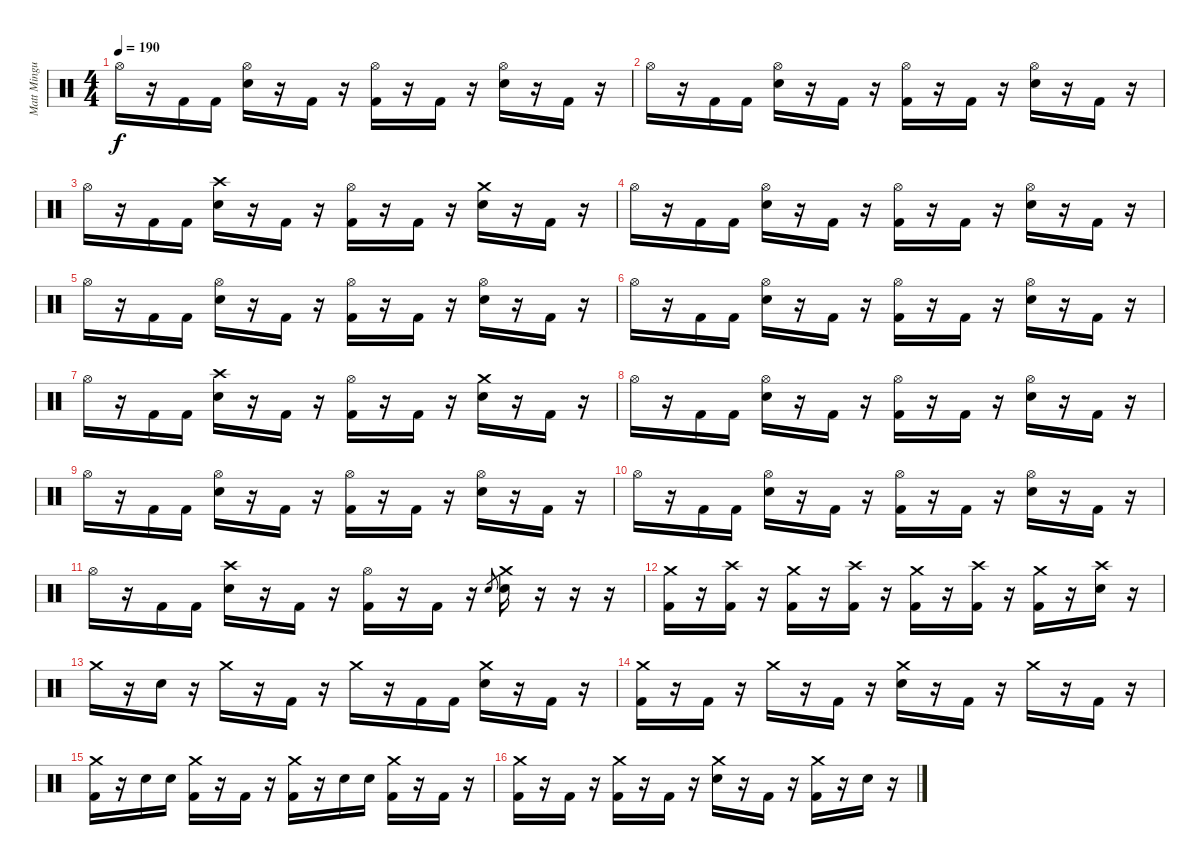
\track ("Matt Mingus" "Matt Mingu") {instrument percussion}
\staff {score}
\articulation defaults
\ts (4 4)
\tempo 190
\clef neutral
\ks c "Hi-Hat (open)".16{dy f}
r.16 "Kick (hit) 2".16 "Kick (hit) 2".16 ("Hi-Hat (open)" "Electric Snare (hit)").16 r.16 "Kick (hit) 2".16 r.16 ("Hi-Hat (open)" "Kick (hit) 2").16 r.16 "Kick (hit) 2".16 r.16 ("Hi-Hat (open)" "Electric Snare (hit)").16 r.16 "Kick (hit) 2".16 r.16 |
"Hi-Hat (open)".16 r.16 "Kick (hit) 2".16 "Kick (hit) 2".16 ("Hi-Hat (open)" "Electric Snare (hit)").16 r.16 "Kick (hit) 2".16 r.16 ("Hi-Hat (open)" "Kick (hit) 2").16 r.16 "Kick (hit) 2".16 r.16 ("Hi-Hat (open)" "Electric Snare (hit)").16 r.16 "Kick (hit) 2".16 r.16 |
"Hi-Hat (open)".16 r.16 "Kick (hit) 2".16 "Kick (hit) 2".16 ("Crash high (hit)" "Electric Snare (hit)").16 r.16 "Kick (hit) 2".16 r.16 ("Hi-Hat (open)" "Kick (hit) 2").16 r.16 "Kick (hit) 2".16 r.16 ("Crash medium (hit)" "Electric Snare (hit)").16 r.16 "Kick (hit) 2".16 r.16 |
"Hi-Hat (open)".16 r.16 "Kick (hit) 2".16 "Kick (hit) 2".16 ("Hi-Hat (open)" "Electric Snare (hit)").16 r.16 "Kick (hit) 2".16 r.16 ("Hi-Hat (open)" "Kick (hit) 2").16 r.16 "Kick (hit) 2".16 r.16 ("Hi-Hat (open)" "Electric Snare (hit)").16 r.16 "Kick (hit) 2".16 r.16 |
"Hi-Hat (open)".16 r.16 "Kick (hit) 2".16 "Kick (hit) 2".16 ("Hi-Hat (open)" "Electric Snare (hit)").16 r.16 "Kick (hit) 2".16 r.16 ("Hi-Hat (open)" "Kick (hit) 2").16 r.16 "Kick (hit) 2".16 r.16 ("Hi-Hat (open)" "Electric Snare (hit)").16 r.16 "Kick (hit) 2".16 r.16 |
"Hi-Hat (open)".16 r.16 "Kick (hit) 2".16 "Kick (hit) 2".16 ("Hi-Hat (open)" "Electric Snare (hit)").16 r.16 "Kick (hit) 2".16 r.16 ("Hi-Hat (open)" "Kick (hit) 2").16 r.16 "Kick (hit) 2".16 r.16 ("Hi-Hat (open)" "Electric Snare (hit)").16 r.16 "Kick (hit) 2".16 r.16 |
"Hi-Hat (open)".16 r.16 "Kick (hit) 2".16 "Kick (hit) 2".16 ("Crash high (hit)" "Electric Snare (hit)").16 r.16 "Kick (hit) 2".16 r.16 ("Hi-Hat (open)" "Kick (hit) 2").16 r.16 "Kick (hit) 2".16 r.16 ("Crash medium (hit)" "Electric Snare (hit)").16 r.16 "Kick (hit) 2".16 r.16 |
"Hi-Hat (open)".16 r.16 "Kick (hit) 2".16 "Kick (hit) 2".16 ("Hi-Hat (open)" "Electric Snare (hit)").16 r.16 "Kick (hit) 2".16 r.16 ("Hi-Hat (open)" "Kick (hit) 2").16 r.16 "Kick (hit) 2".16 r.16 ("Hi-Hat (open)" "Electric Snare (hit)").16 r.16 "Kick (hit) 2".16 r.16 |
"Hi-Hat (open)".16 r.16 "Kick (hit) 2".16 "Kick (hit) 2".16 ("Hi-Hat (open)" "Electric Snare (hit)").16 r.16 "Kick (hit) 2".16 r.16 ("Hi-Hat (open)" "Kick (hit) 2").16 r.16 "Kick (hit) 2".16 r.16 ("Hi-Hat (open)" "Electric Snare (hit)").16 r.16 "Kick (hit) 2".16 r.16 |
"Hi-Hat (open)".16 r.16 "Kick (hit) 2".16 "Kick (hit) 2".16 ("Hi-Hat (open)" "Electric Snare (hit)").16 r.16 "Kick (hit) 2".16 r.16 ("Hi-Hat (open)" "Kick (hit) 2").16 r.16 "Kick (hit) 2".16 r.16 ("Hi-Hat (open)" "Electric Snare (hit)").16 r.16 "Kick (hit) 2".16 r.16 |
"Hi-Hat (open)".16 r.16 "Kick (hit) 2".16 "Kick (hit) 2".16 ("Crash high (hit)" "Electric Snare (hit)").16 r.16 "Kick (hit) 2".16 r.16 ("Hi-Hat (open)" "Kick (hit) 2").16 r.16 "Kick (hit) 2".16 r.16 "Electric Snare (hit)".8{gr} ("Crash medium (hit)" "Electric Snare (hit)").16 r.16 r.16 r.16 |
("Crash medium (hit)" "Kick (hit) 2").16 r.16 ("Crash high (hit)" "Kick (hit) 2").16 r.16 ("Crash medium (hit)" "Kick (hit) 2").16 r.16 ("Crash high (hit)" "Kick (hit) 2").16 r.16 ("Crash medium (hit)" "Kick (hit) 2").16 r.16 ("Crash high (hit)" "Kick (hit) 2").16 r.16 ("Crash medium (hit)" "Kick (hit) 2").16 r.16 ("Crash high (hit)" "Electric Snare (hit)").16 r.16 |
"Crash medium (hit)".16 r.16 "Electric Snare (hit)".16 r.16 "Crash medium (hit)".16 r.16 "Kick (hit) 2".16 r.16 "Crash medium (hit)".16 r.16 "Kick (hit) 2".16 "Kick (hit) 2".16 ("Crash medium (hit)" "Electric Snare (hit)").16 r.16 "Kick (hit) 2".16 r.16 |
("Crash medium (hit)" "Kick (hit) 2").16 r.16 "Kick (hit) 2".16 r.16 "Crash medium (hit)".16 r.16 "Kick (hit) 2".16 r.16 ("Crash medium (hit)" "Electric Snare (hit)").16 r.16 "Kick (hit) 2".16 r.16 "Crash medium (hit)".16 r.16 "Kick (hit) 2".16 r.16 |
("Crash medium (hit)" "Kick (hit) 2").16 r.16 "Electric Snare (hit)".16 "Electric Snare (hit)".16 ("Crash medium (hit)" "Kick (hit) 2").16 r.16 "Kick (hit) 2".16 r.16 ("Crash medium (hit)" "Kick (hit) 2").16 r.16 "Electric Snare (hit)".16 "Electric Snare (hit)".16 ("Crash medium (hit)" "Kick (hit) 2").16 r.16 "Kick (hit) 2".16 r.16 |
("Crash medium (hit)" "Kick (hit) 2").16 r.16 "Kick (hit) 2".16 r.16 ("Crash medium (hit)" "Kick (hit) 2").16 r.16 "Kick (hit) 2".16 r.16 ("Crash medium (hit)" "Electric Snare (hit)").16 r.16 "Kick (hit) 2".16 r.16 ("Crash medium (hit)" "Kick (hit) 2").16 r.16 "Electric Snare (hit)".16 r.16
